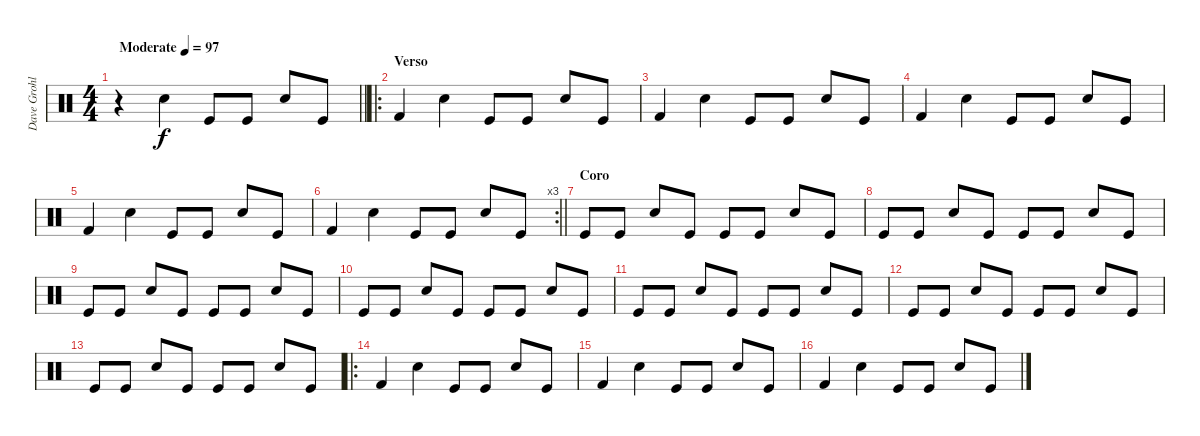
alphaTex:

\track ("Dave Grohl" "Dave Grohl") {instrument percussion}
\staff {score}
\articulation defaults
\ts (4 4)
\tempo (97 "Moderate")
\clef neutral
\barLineRight lightlight
\ks c
r.4{dy f} "Electric Snare (hit)".4 "Kick (hit)".8 "Kick (hit)".8 "Electric Snare (hit)".8 "Kick (hit)".8 |
\ro
\section ("" "Verso")
"Kick (hit) 2".4 "Electric Snare (hit)".4 "Kick (hit)".8 "Kick (hit)".8 "Electric Snare (hit)".8 "Kick (hit)".8 |
"Kick (hit) 2".4 "Electric Snare (hit)".4 "Kick (hit)".8 "Kick (hit)".8 "Electric Snare (hit)".8 "Kick (hit)".8 |
"Kick (hit) 2".4 "Electric Snare (hit)".4 "Kick (hit)".8 "Kick (hit)".8 "Electric Snare (hit)".8 "Kick (hit)".8 |
"Kick (hit) 2".4 "Electric Snare (hit)".4 "Kick (hit)".8 "Kick (hit)".8 "Electric Snare (hit)".8 "Kick (hit)".8 |
\rc 3
\barLineRight lightlight "Kick (hit) 2".4 "Electric Snare (hit)".4 "Kick (hit)".8 "Kick (hit)".8 "Electric Snare (hit)".8 "Kick (hit)".8
|
\section ("" "Coro")
"Kick (hit)".8 "Kick (hit)".8 "Electric Snare (hit)".8 "Kick (hit)".8 "Kick (hit)".8 "Kick (hit)".8 "Electric Snare (hit)".8 "Kick (hit)".8 |
"Kick (hit)".8 "Kick (hit)".8 "Electric Snare (hit)".8 "Kick (hit)".8 "Kick (hit)".8 "Kick (hit)".8 "Electric Snare (hit)".8 "Kick (hit)".8 |
"Kick (hit)".8 "Kick (hit)".8 "Electric Snare (hit)".8 "Kick (hit)".8 "Kick (hit)".8 "Kick (hit)".8 "Electric Snare (hit)".8 "Kick (hit)".8 |
"Kick (hit)".8 "Kick (hit)".8 "Electric Snare (hit)".8 "Kick (hit)".8 "Kick (hit)".8 "Kick (hit)".8 "Electric Snare (hit)".8 "Kick (hit)".8 |
"Kick (hit)".8 "Kick (hit)".8 "Electric Snare (hit)".8 "Kick (hit)".8 "Kick (hit)".8 "Kick (hit)".8 "Electric Snare (hit)".8 "Kick (hit)".8 |
"Kick (hit)".8 "Kick (hit)".8 "Electric Snare (hit)".8 "Kick (hit)".8 "Kick (hit)".8 "Kick (hit)".8 "Electric Snare (hit)".8 "Kick (hit)".8 |
"Kick (hit)".8 "Kick (hit)".8 "Electric Snare (hit)".8 "Kick (hit)".8 "Kick (hit)".8 "Kick (hit)".8 "Electric Snare (hit)".8 "Kick (hit)".8 |
\ro "Kick (hit) 2".4 "Electric Snare (hit)".4 "Kick (hit)".8 "Kick (hit)".8 "Electric Snare (hit)".8 "Kick (hit)".8
|
"Kick (hit) 2".4 "Electric Snare (hit)".4 "Kick (hit)".8 "Kick (hit)".8 "Electric Snare (hit)".8 "Kick (hit)".8 |
"Kick (hit) 2".4 "Electric Snare (hit)".4 "Kick (hit)".8 "Kick (hit)".8 "Electric Snare (hit)".8 "Kick (hit)".8
